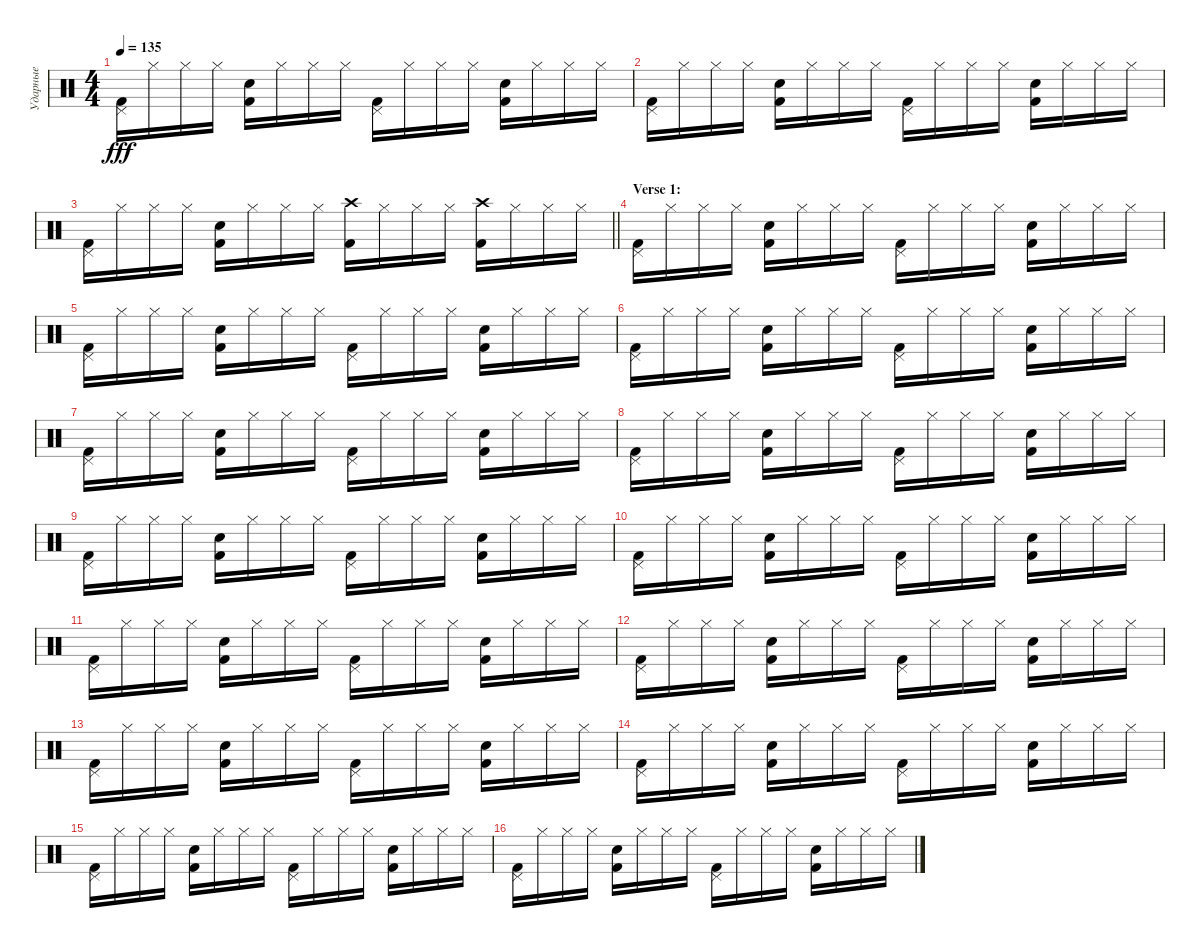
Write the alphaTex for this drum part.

\track ("Ударные" "Ударные") {instrument percussion}
\staff {score}
\articulation defaults
\ts (4 4)
\tempo 135
\clef neutral
\ks c
("Pedal Hi-Hat (hit)" "Kick (hit) 2").16{dy fff} "Hi-Hat (closed)".16 "Hi-Hat (closed)".16 "Hi-Hat (closed)".16 ("Snare (hit) 2" "Kick (hit) 2").16 "Hi-Hat (closed)".16 "Hi-Hat (closed)".16 "Hi-Hat (closed)".16 ("Pedal Hi-Hat (hit)" "Kick (hit) 2").16 "Hi-Hat (closed)".16 "Hi-Hat (closed)".16 "Hi-Hat (closed)".16 ("Snare (hit) 2" "Kick (hit) 2").16 "Hi-Hat (closed)".16 "Hi-Hat (closed)".16 "Hi-Hat (closed)".16 |
("Pedal Hi-Hat (hit)" "Kick (hit) 2").16 "Hi-Hat (closed)".16 "Hi-Hat (closed)".16 "Hi-Hat (closed)".16 ("Snare (hit) 2" "Kick (hit) 2").16 "Hi-Hat (closed)".16 "Hi-Hat (closed)".16 "Hi-Hat (closed)".16 ("Pedal Hi-Hat (hit)" "Kick (hit) 2").16 "Hi-Hat (closed)".16 "Hi-Hat (closed)".16 "Hi-Hat (closed)".16 ("Snare (hit) 2" "Kick (hit) 2").16 "Hi-Hat (closed)".16 "Hi-Hat (closed)".16 "Hi-Hat (closed)".16 |
\barLineRight lightlight
("Pedal Hi-Hat (hit)" "Kick (hit) 2").16 "Hi-Hat (closed)".16 "Hi-Hat (closed)".16 "Hi-Hat (closed)".16 ("Snare (hit) 2" "Kick (hit) 2").16 "Hi-Hat (closed)".16 "Hi-Hat (closed)".16 "Hi-Hat (closed)".16 ("Crash high (hit)" "Kick (hit) 2").16 "Hi-Hat (closed)".16 "Hi-Hat (closed)".16 "Hi-Hat (closed)".16 ("Crash high (hit)" "Kick (hit) 2").16 "Hi-Hat (closed)".16 "Hi-Hat (closed)".16 "Hi-Hat (closed)".16 |
\section ("" "Verse 1:")
("Pedal Hi-Hat (hit)" "Kick (hit) 2").16 "Hi-Hat (closed)".16 "Hi-Hat (closed)".16 "Hi-Hat (closed)".16 ("Snare (hit) 2" "Kick (hit) 2").16 "Hi-Hat (closed)".16 "Hi-Hat (closed)".16 "Hi-Hat (closed)".16 ("Pedal Hi-Hat (hit)" "Kick (hit) 2").16 "Hi-Hat (closed)".16 "Hi-Hat (closed)".16 "Hi-Hat (closed)".16 ("Snare (hit) 2" "Kick (hit) 2").16 "Hi-Hat (closed)".16 "Hi-Hat (closed)".16 "Hi-Hat (closed)".16 |
("Pedal Hi-Hat (hit)" "Kick (hit) 2").16 "Hi-Hat (closed)".16 "Hi-Hat (closed)".16 "Hi-Hat (closed)".16 ("Snare (hit) 2" "Kick (hit) 2").16 "Hi-Hat (closed)".16 "Hi-Hat (closed)".16 "Hi-Hat (closed)".16 ("Pedal Hi-Hat (hit)" "Kick (hit) 2").16 "Hi-Hat (closed)".16 "Hi-Hat (closed)".16 "Hi-Hat (closed)".16 ("Snare (hit) 2" "Kick (hit) 2").16 "Hi-Hat (closed)".16 "Hi-Hat (closed)".16 "Hi-Hat (closed)".16 |
("Pedal Hi-Hat (hit)" "Kick (hit) 2").16 "Hi-Hat (closed)".16 "Hi-Hat (closed)".16 "Hi-Hat (closed)".16 ("Snare (hit) 2" "Kick (hit) 2").16 "Hi-Hat (closed)".16 "Hi-Hat (closed)".16 "Hi-Hat (closed)".16 ("Pedal Hi-Hat (hit)" "Kick (hit) 2").16 "Hi-Hat (closed)".16 "Hi-Hat (closed)".16 "Hi-Hat (closed)".16 ("Snare (hit) 2" "Kick (hit) 2").16 "Hi-Hat (closed)".16 "Hi-Hat (closed)".16 "Hi-Hat (closed)".16 |
("Pedal Hi-Hat (hit)" "Kick (hit) 2").16 "Hi-Hat (closed)".16 "Hi-Hat (closed)".16 "Hi-Hat (closed)".16 ("Snare (hit) 2" "Kick (hit) 2").16 "Hi-Hat (closed)".16 "Hi-Hat (closed)".16 "Hi-Hat (closed)".16 ("Pedal Hi-Hat (hit)" "Kick (hit) 2").16 "Hi-Hat (closed)".16 "Hi-Hat (closed)".16 "Hi-Hat (closed)".16 ("Snare (hit) 2" "Kick (hit) 2").16 "Hi-Hat (closed)".16 "Hi-Hat (closed)".16 "Hi-Hat (closed)".16 |
("Pedal Hi-Hat (hit)" "Kick (hit) 2").16 "Hi-Hat (closed)".16 "Hi-Hat (closed)".16 "Hi-Hat (closed)".16 ("Snare (hit) 2" "Kick (hit) 2").16 "Hi-Hat (closed)".16 "Hi-Hat (closed)".16 "Hi-Hat (closed)".16 ("Pedal Hi-Hat (hit)" "Kick (hit) 2").16 "Hi-Hat (closed)".16 "Hi-Hat (closed)".16 "Hi-Hat (closed)".16 ("Snare (hit) 2" "Kick (hit) 2").16 "Hi-Hat (closed)".16 "Hi-Hat (closed)".16 "Hi-Hat (closed)".16 |
("Pedal Hi-Hat (hit)" "Kick (hit) 2").16 "Hi-Hat (closed)".16 "Hi-Hat (closed)".16 "Hi-Hat (closed)".16 ("Snare (hit) 2" "Kick (hit) 2").16 "Hi-Hat (closed)".16 "Hi-Hat (closed)".16 "Hi-Hat (closed)".16 ("Pedal Hi-Hat (hit)" "Kick (hit) 2").16 "Hi-Hat (closed)".16 "Hi-Hat (closed)".16 "Hi-Hat (closed)".16 ("Snare (hit) 2" "Kick (hit) 2").16 "Hi-Hat (closed)".16 "Hi-Hat (closed)".16 "Hi-Hat (closed)".16 |
("Pedal Hi-Hat (hit)" "Kick (hit) 2").16 "Hi-Hat (closed)".16 "Hi-Hat (closed)".16 "Hi-Hat (closed)".16 ("Snare (hit) 2" "Kick (hit) 2").16 "Hi-Hat (closed)".16 "Hi-Hat (closed)".16 "Hi-Hat (closed)".16 ("Pedal Hi-Hat (hit)" "Kick (hit) 2").16 "Hi-Hat (closed)".16 "Hi-Hat (closed)".16 "Hi-Hat (closed)".16 ("Snare (hit) 2" "Kick (hit) 2").16 "Hi-Hat (closed)".16 "Hi-Hat (closed)".16 "Hi-Hat (closed)".16 |
("Pedal Hi-Hat (hit)" "Kick (hit) 2").16 "Hi-Hat (closed)".16 "Hi-Hat (closed)".16 "Hi-Hat (closed)".16 ("Snare (hit) 2" "Kick (hit) 2").16 "Hi-Hat (closed)".16 "Hi-Hat (closed)".16 "Hi-Hat (closed)".16 ("Pedal Hi-Hat (hit)" "Kick (hit) 2").16 "Hi-Hat (closed)".16 "Hi-Hat (closed)".16 "Hi-Hat (closed)".16 ("Snare (hit) 2" "Kick (hit) 2").16 "Hi-Hat (closed)".16 "Hi-Hat (closed)".16 "Hi-Hat (closed)".16 |
("Pedal Hi-Hat (hit)" "Kick (hit) 2").16 "Hi-Hat (closed)".16 "Hi-Hat (closed)".16 "Hi-Hat (closed)".16 ("Snare (hit) 2" "Kick (hit) 2").16 "Hi-Hat (closed)".16 "Hi-Hat (closed)".16 "Hi-Hat (closed)".16 ("Pedal Hi-Hat (hit)" "Kick (hit) 2").16 "Hi-Hat (closed)".16 "Hi-Hat (closed)".16 "Hi-Hat (closed)".16 ("Snare (hit) 2" "Kick (hit) 2").16 "Hi-Hat (closed)".16 "Hi-Hat (closed)".16 "Hi-Hat (closed)".16 |
("Pedal Hi-Hat (hit)" "Kick (hit) 2").16 "Hi-Hat (closed)".16 "Hi-Hat (closed)".16 "Hi-Hat (closed)".16 ("Snare (hit) 2" "Kick (hit) 2").16 "Hi-Hat (closed)".16 "Hi-Hat (closed)".16 "Hi-Hat (closed)".16 ("Pedal Hi-Hat (hit)" "Kick (hit) 2").16 "Hi-Hat (closed)".16 "Hi-Hat (closed)".16 "Hi-Hat (closed)".16 ("Snare (hit) 2" "Kick (hit) 2").16 "Hi-Hat (closed)".16 "Hi-Hat (closed)".16 "Hi-Hat (closed)".16 |
("Pedal Hi-Hat (hit)" "Kick (hit) 2").16 "Hi-Hat (closed)".16 "Hi-Hat (closed)".16 "Hi-Hat (closed)".16 ("Snare (hit) 2" "Kick (hit) 2").16 "Hi-Hat (closed)".16 "Hi-Hat (closed)".16 "Hi-Hat (closed)".16 ("Pedal Hi-Hat (hit)" "Kick (hit) 2").16 "Hi-Hat (closed)".16 "Hi-Hat (closed)".16 "Hi-Hat (closed)".16 ("Snare (hit) 2" "Kick (hit) 2").16 "Hi-Hat (closed)".16 "Hi-Hat (closed)".16 "Hi-Hat (closed)".16 |
("Pedal Hi-Hat (hit)" "Kick (hit) 2").16 "Hi-Hat (closed)".16 "Hi-Hat (closed)".16 "Hi-Hat (closed)".16 ("Snare (hit) 2" "Kick (hit) 2").16 "Hi-Hat (closed)".16 "Hi-Hat (closed)".16 "Hi-Hat (closed)".16 ("Pedal Hi-Hat (hit)" "Kick (hit) 2").16 "Hi-Hat (closed)".16 "Hi-Hat (closed)".16 "Hi-Hat (closed)".16 ("Snare (hit) 2" "Kick (hit) 2").16 "Hi-Hat (closed)".16 "Hi-Hat (closed)".16 "Hi-Hat (closed)".16 |
("Pedal Hi-Hat (hit)" "Kick (hit) 2").16 "Hi-Hat (closed)".16 "Hi-Hat (closed)".16 "Hi-Hat (closed)".16 ("Snare (hit) 2" "Kick (hit) 2").16 "Hi-Hat (closed)".16 "Hi-Hat (closed)".16 "Hi-Hat (closed)".16 ("Pedal Hi-Hat (hit)" "Kick (hit) 2").16 "Hi-Hat (closed)".16 "Hi-Hat (closed)".16 "Hi-Hat (closed)".16 ("Snare (hit) 2" "Kick (hit) 2").16 "Hi-Hat (closed)".16 "Hi-Hat (closed)".16 "Hi-Hat (closed)".16
